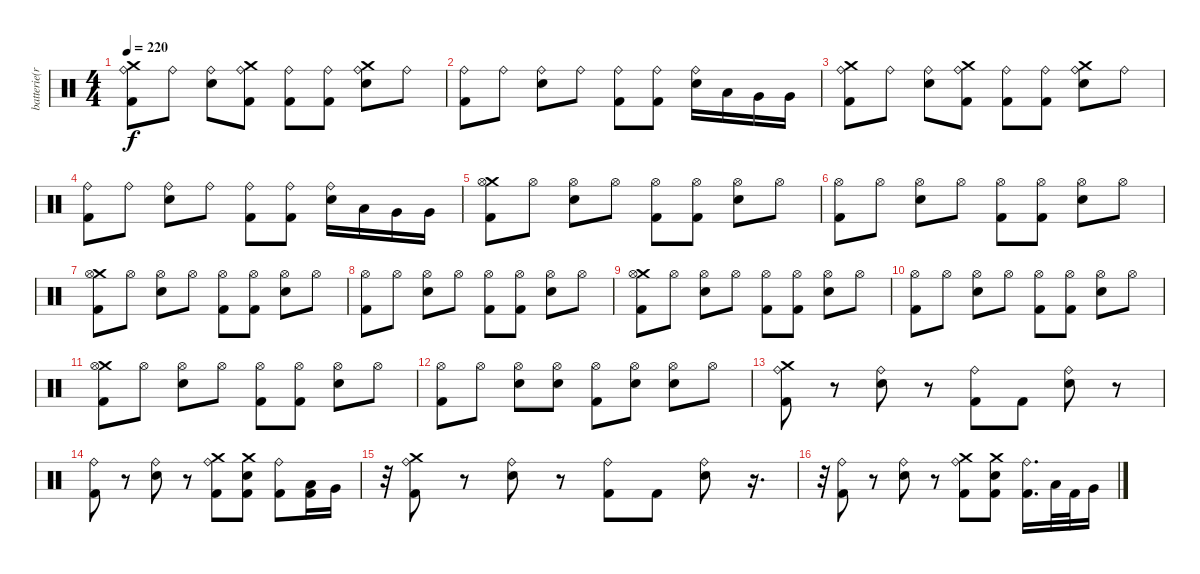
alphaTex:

\track ("batterie(richie)" "batterie(r") {instrument percussion}
\staff {score}
\articulation defaults
\ts (4 4)
\tempo 220
\clef neutral
\ks c
("Crash medium (hit)" "Kick (hit) 2" "Ride (bell)").8{dy f} "Ride (bell)".8 ("Electric Snare (hit)" "Ride (bell)").8 ("Kick (hit) 2" "Crash medium (hit)" "Ride (bell)").8 ("Kick (hit) 2" "Ride (bell)").8 ("Kick (hit) 2" "Ride (bell)").8 ("Crash medium (hit)" "Electric Snare (hit)" "Ride (bell)").8 "Ride (bell)".8 |
("Kick (hit) 2" "Ride (bell)").8 "Ride (bell)".8 ("Electric Snare (hit)" "Ride (bell)").8 "Ride (bell)".8 ("Kick (hit) 2" "Ride (bell)").8 ("Kick (hit) 2" "Ride (bell)").8 ("Electric Snare (hit)" "Ride (bell)").16 "Low Tom (hit)".16 "Very Low Tom (hit)".16 "Very Low Tom (hit)".16 |
("Crash medium (hit)" "Kick (hit) 2" "Ride (bell)").8 "Ride (bell)".8 ("Electric Snare (hit)" "Ride (bell)").8 ("Kick (hit) 2" "Crash medium (hit)" "Ride (bell)").8 ("Kick (hit) 2" "Ride (bell)").8 ("Kick (hit) 2" "Ride (bell)").8 ("Crash medium (hit)" "Electric Snare (hit)" "Ride (bell)").8 "Ride (bell)".8 |
("Kick (hit) 2" "Ride (bell)").8 "Ride (bell)".8 ("Electric Snare (hit)" "Ride (bell)").8 "Ride (bell)".8 ("Kick (hit) 2" "Ride (bell)").8 ("Kick (hit) 2" "Ride (bell)").8 ("Electric Snare (hit)" "Ride (bell)").16 "Low Tom (hit)".16 "Very Low Tom (hit)".16 "Very Low Tom (hit)".16 |
("Kick (hit) 2" "Crash medium (hit)" "Hi-Hat (open)").8 "Hi-Hat (open)".8 ("Electric Snare (hit)" "Hi-Hat (open)").8 "Hi-Hat (open)".8 ("Hi-Hat (open)" "Kick (hit) 2").8 ("Hi-Hat (open)" "Kick (hit) 2").8 ("Electric Snare (hit)" "Hi-Hat (open)").8 "Hi-Hat (open)".8 |
("Kick (hit) 2" "Hi-Hat (open)").8 "Hi-Hat (open)".8 ("Electric Snare (hit)" "Hi-Hat (open)").8 "Hi-Hat (open)".8 ("Hi-Hat (open)" "Kick (hit) 2").8 ("Hi-Hat (open)" "Kick (hit) 2").8 ("Electric Snare (hit)" "Hi-Hat (open)").8 "Hi-Hat (open)".8 |
("Kick (hit) 2" "Crash medium (hit)" "Hi-Hat (open)").8 "Hi-Hat (open)".8 ("Electric Snare (hit)" "Hi-Hat (open)").8 "Hi-Hat (open)".8 ("Hi-Hat (open)" "Kick (hit) 2").8 ("Hi-Hat (open)" "Kick (hit) 2").8 ("Electric Snare (hit)" "Hi-Hat (open)").8 "Hi-Hat (open)".8 |
("Kick (hit) 2" "Hi-Hat (open)").8 "Hi-Hat (open)".8 ("Electric Snare (hit)" "Hi-Hat (open)").8 "Hi-Hat (open)".8 ("Hi-Hat (open)" "Kick (hit) 2").8 ("Hi-Hat (open)" "Kick (hit) 2").8 ("Electric Snare (hit)" "Hi-Hat (open)").8 "Hi-Hat (open)".8 |
("Kick (hit) 2" "Crash medium (hit)" "Hi-Hat (open)").8 "Hi-Hat (open)".8 ("Electric Snare (hit)" "Hi-Hat (open)").8 "Hi-Hat (open)".8 ("Hi-Hat (open)" "Kick (hit) 2").8 ("Hi-Hat (open)" "Kick (hit) 2").8 ("Electric Snare (hit)" "Hi-Hat (open)").8 "Hi-Hat (open)".8 |
("Kick (hit) 2" "Hi-Hat (open)").8 "Hi-Hat (open)".8 ("Electric Snare (hit)" "Hi-Hat (open)").8 "Hi-Hat (open)".8 ("Hi-Hat (open)" "Kick (hit) 2").8 ("Hi-Hat (open)" "Kick (hit) 2").8 ("Electric Snare (hit)" "Hi-Hat (open)").8 "Hi-Hat (open)".8 |
("Kick (hit) 2" "Crash medium (hit)" "Hi-Hat (open)").8 "Hi-Hat (open)".8 ("Electric Snare (hit)" "Hi-Hat (open)").8 "Hi-Hat (open)".8 ("Hi-Hat (open)" "Kick (hit) 2").8 ("Hi-Hat (open)" "Kick (hit) 2").8 ("Electric Snare (hit)" "Hi-Hat (open)").8 "Hi-Hat (open)".8 |
("Kick (hit) 2" "Hi-Hat (open)").8 "Hi-Hat (open)".8 ("Electric Snare (hit)" "Hi-Hat (open)").8 ("Hi-Hat (open)" "Electric Snare (hit)").8 ("Kick (hit) 2" "Hi-Hat (open)").8 ("Electric Snare (hit)" "Hi-Hat (open)").8 ("Hi-Hat (open)" "Electric Snare (hit)").8 "Hi-Hat (open)".8 |
("Crash medium (hit)" "Ride (bell)" "Kick (hit) 2").8 r.8 ("Ride (bell)" "Electric Snare (hit)").8 r.8 ("Ride (bell)" "Kick (hit) 2").8 "Kick (hit) 2".8 ("Ride (bell)" "Electric Snare (hit)").8 r.8 |
("Ride (bell)" "Kick (hit) 2").8 r.8 ("Ride (bell)" "Electric Snare (hit)").8 r.8 ("Crash medium (hit)" "Ride (bell)" "Kick (hit) 2").8 ("Electric Snare (hit)" "Crash medium (hit)" "Kick (hit) 2").8 ("Kick (hit) 2" "Ride (bell)").8 ("Low Tom (hit)" "Kick (hit) 2").16 "Very Low Tom (hit)".16 |
r.32 ("Crash medium (hit)" "Ride (bell)" "Kick (hit) 2").8 r.8 ("Ride (bell)" "Electric Snare (hit)").8 r.8 ("Ride (bell)" "Kick (hit) 2").8 "Kick (hit) 2".8 ("Ride (bell)" "Electric Snare (hit)").8 r.16{d} |
r.32 ("Ride (bell)" "Kick (hit) 2").8 r.8 ("Ride (bell)" "Electric Snare (hit)").8 r.8 ("Crash medium (hit)" "Ride (bell)" "Kick (hit) 2").8 ("Electric Snare (hit)" "Crash medium (hit)" "Kick (hit) 2").8 ("Kick (hit) 2" "Ride (bell)").16{d} "Low Tom (hit)".32 "Kick (hit) 2".32 "Very Low Tom (hit)".16
